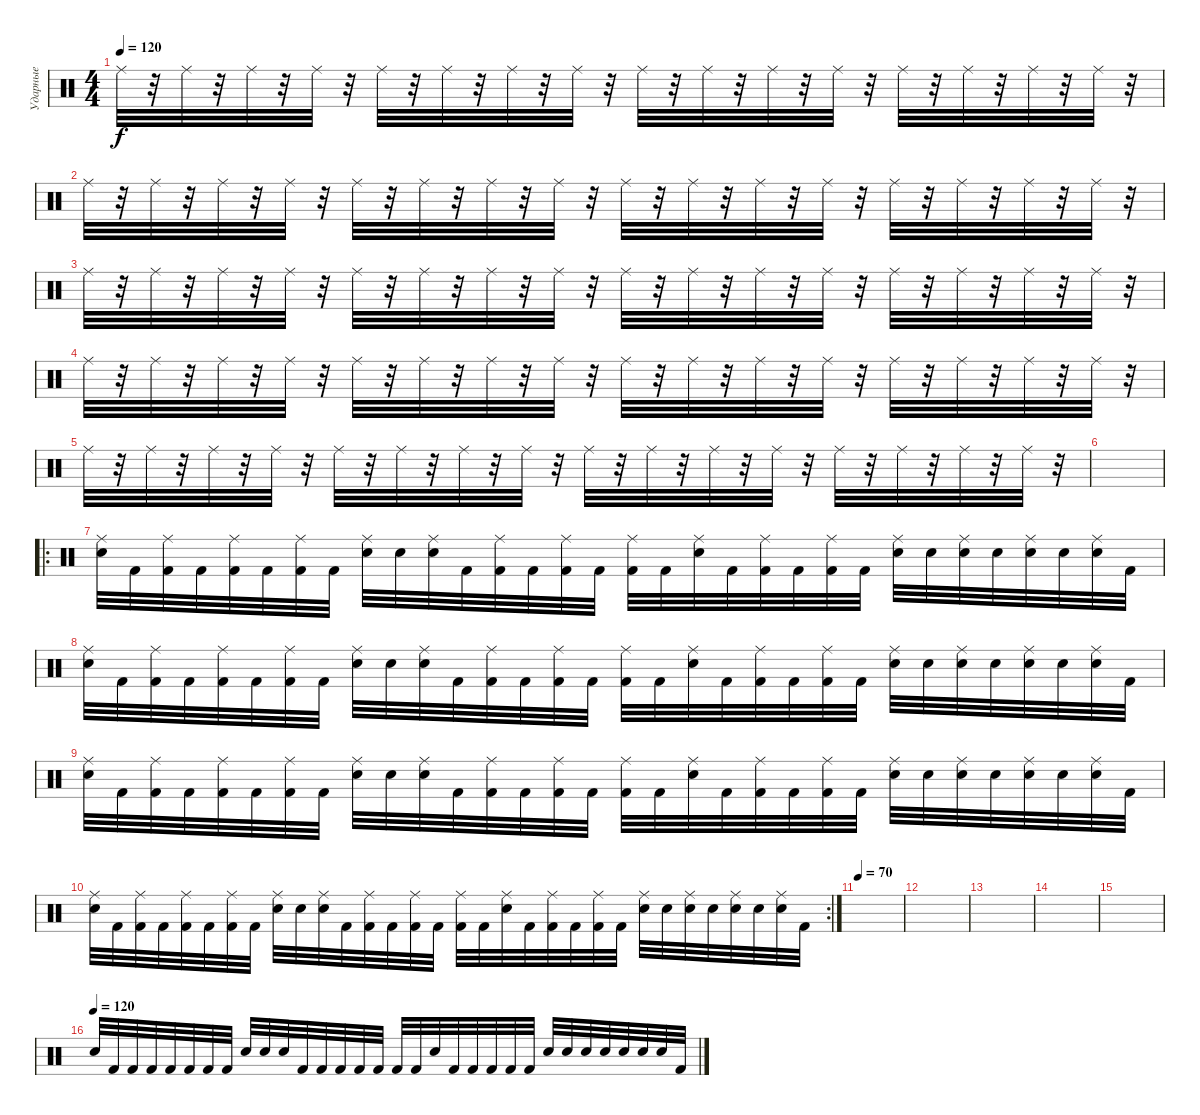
\track ("Ударные" "Ударные") {instrument percussion}
\staff {score}
\articulation defaults
\ts (4 4)
\tempo 120
\clef neutral
\ks c "Ride (middle)".32{dy f}
r.32 "Ride (middle)".32 r.32 "Ride (middle)".32 r.32 "Ride (middle)".32 r.32 "Ride (middle)".32 r.32 "Ride (middle)".32 r.32 "Ride (middle)".32 r.32 "Ride (middle)".32 r.32 "Ride (middle)".32 r.32 "Ride (middle)".32 r.32 "Ride (middle)".32 r.32 "Ride (middle)".32 r.32 "Ride (middle)".32 r.32 "Ride (middle)".32 r.32 "Ride (middle)".32 r.32 "Ride (middle)".32 r.32 |
"Ride (middle)".32 r.32 "Ride (middle)".32 r.32 "Ride (middle)".32 r.32 "Ride (middle)".32 r.32 "Ride (middle)".32 r.32 "Ride (middle)".32 r.32 "Ride (middle)".32 r.32 "Ride (middle)".32 r.32 "Ride (middle)".32 r.32 "Ride (middle)".32 r.32 "Ride (middle)".32 r.32 "Ride (middle)".32 r.32 "Ride (middle)".32 r.32 "Ride (middle)".32 r.32 "Ride (middle)".32 r.32 "Ride (middle)".32 r.32 |
"Ride (middle)".32 r.32 "Ride (middle)".32 r.32 "Ride (middle)".32 r.32 "Ride (middle)".32 r.32 "Ride (middle)".32 r.32 "Ride (middle)".32 r.32 "Ride (middle)".32 r.32 "Ride (middle)".32 r.32 "Ride (middle)".32 r.32 "Ride (middle)".32 r.32 "Ride (middle)".32 r.32 "Ride (middle)".32 r.32 "Ride (middle)".32 r.32 "Ride (middle)".32 r.32 "Ride (middle)".32 r.32 "Ride (middle)".32 r.32 |
"Ride (middle)".32 r.32 "Ride (middle)".32 r.32 "Ride (middle)".32 r.32 "Ride (middle)".32 r.32 "Ride (middle)".32 r.32 "Ride (middle)".32 r.32 "Ride (middle)".32 r.32 "Ride (middle)".32 r.32 "Ride (middle)".32 r.32 "Ride (middle)".32 r.32 "Ride (middle)".32 r.32 "Ride (middle)".32 r.32 "Ride (middle)".32 r.32 "Ride (middle)".32 r.32 "Ride (middle)".32 r.32 "Ride (middle)".32 r.32 |
"Ride (middle)".32 r.32 "Ride (middle)".32 r.32 "Ride (middle)".32 r.32 "Ride (middle)".32 r.32 "Ride (middle)".32 r.32 "Ride (middle)".32 r.32 "Ride (middle)".32 r.32 "Ride (middle)".32 r.32 "Ride (middle)".32 r.32 "Ride (middle)".32 r.32 "Ride (middle)".32 r.32 "Ride (middle)".32 r.32 "Ride (middle)".32 r.32 "Ride (middle)".32 r.32 "Ride (middle)".32 r.32 "Ride (middle)".32 r.32 |
|
\ro
("Ride (middle)" "Snare (hit) 2").32 "Kick (hit) 2".32 ("Ride (middle)" "Kick (hit) 2").32 "Kick (hit) 2".32 ("Ride (middle)" "Kick (hit) 2").32 "Kick (hit) 2".32 ("Ride (middle)" "Kick (hit) 2").32 "Kick (hit) 2".32 ("Ride (middle)" "Snare (hit) 2").32 "Snare (hit) 2".32 ("Ride (middle)" "Snare (hit) 2").32 "Kick (hit) 2".32 ("Ride (middle)" "Kick (hit) 2").32 "Kick (hit) 2".32 ("Ride (middle)" "Kick (hit) 2").32 "Kick (hit) 2".32 ("Ride (middle)" "Kick (hit) 2").32 "Kick (hit) 2".32 ("Ride (middle)" "Snare (hit) 2").32 "Kick (hit) 2".32 ("Ride (middle)" "Kick (hit) 2").32 "Kick (hit) 2".32 ("Ride (middle)" "Kick (hit) 2").32 "Kick (hit) 2".32 ("Ride (middle)" "Snare (hit) 2").32 "Snare (hit) 2".32 ("Ride (middle)" "Snare (hit) 2").32 "Snare (hit) 2".32 ("Ride (middle)" "Snare (hit) 2").32 "Snare (hit) 2".32 ("Ride (middle)" "Snare (hit) 2").32 "Kick (hit) 2".32 |
("Ride (middle)" "Snare (hit) 2").32 "Kick (hit) 2".32 ("Ride (middle)" "Kick (hit) 2").32 "Kick (hit) 2".32 ("Ride (middle)" "Kick (hit) 2").32 "Kick (hit) 2".32 ("Ride (middle)" "Kick (hit) 2").32 "Kick (hit) 2".32 ("Ride (middle)" "Snare (hit) 2").32 "Snare (hit) 2".32 ("Ride (middle)" "Snare (hit) 2").32 "Kick (hit) 2".32 ("Ride (middle)" "Kick (hit) 2").32 "Kick (hit) 2".32 ("Ride (middle)" "Kick (hit) 2").32 "Kick (hit) 2".32 ("Ride (middle)" "Kick (hit) 2").32 "Kick (hit) 2".32 ("Ride (middle)" "Snare (hit) 2").32 "Kick (hit) 2".32 ("Ride (middle)" "Kick (hit) 2").32 "Kick (hit) 2".32 ("Ride (middle)" "Kick (hit) 2").32 "Kick (hit) 2".32 ("Ride (middle)" "Snare (hit) 2").32 "Snare (hit) 2".32 ("Ride (middle)" "Snare (hit) 2").32 "Snare (hit) 2".32 ("Ride (middle)" "Snare (hit) 2").32 "Snare (hit) 2".32 ("Ride (middle)" "Snare (hit) 2").32 "Kick (hit) 2".32 |
("Ride (middle)" "Snare (hit) 2").32 "Kick (hit) 2".32 ("Ride (middle)" "Kick (hit) 2").32 "Kick (hit) 2".32 ("Ride (middle)" "Kick (hit) 2").32 "Kick (hit) 2".32 ("Ride (middle)" "Kick (hit) 2").32 "Kick (hit) 2".32 ("Ride (middle)" "Snare (hit) 2").32 "Snare (hit) 2".32 ("Ride (middle)" "Snare (hit) 2").32 "Kick (hit) 2".32 ("Ride (middle)" "Kick (hit) 2").32 "Kick (hit) 2".32 ("Ride (middle)" "Kick (hit) 2").32 "Kick (hit) 2".32 ("Ride (middle)" "Kick (hit) 2").32 "Kick (hit) 2".32 ("Ride (middle)" "Snare (hit) 2").32 "Kick (hit) 2".32 ("Ride (middle)" "Kick (hit) 2").32 "Kick (hit) 2".32 ("Ride (middle)" "Kick (hit) 2").32 "Kick (hit) 2".32 ("Ride (middle)" "Snare (hit) 2").32 "Snare (hit) 2".32 ("Ride (middle)" "Snare (hit) 2").32 "Snare (hit) 2".32 ("Ride (middle)" "Snare (hit) 2").32 "Snare (hit) 2".32 ("Ride (middle)" "Snare (hit) 2").32 "Kick (hit) 2".32 |
\rc 2
("Ride (middle)" "Snare (hit) 2").32 "Kick (hit) 2".32 ("Ride (middle)" "Kick (hit) 2").32 "Kick (hit) 2".32 ("Ride (middle)" "Kick (hit) 2").32 "Kick (hit) 2".32 ("Ride (middle)" "Kick (hit) 2").32 "Kick (hit) 2".32 ("Ride (middle)" "Snare (hit) 2").32 "Snare (hit) 2".32 ("Ride (middle)" "Snare (hit) 2").32 "Kick (hit) 2".32 ("Ride (middle)" "Kick (hit) 2").32 "Kick (hit) 2".32 ("Ride (middle)" "Kick (hit) 2").32 "Kick (hit) 2".32 ("Ride (middle)" "Kick (hit) 2").32 "Kick (hit) 2".32 ("Ride (middle)" "Snare (hit) 2").32 "Kick (hit) 2".32 ("Ride (middle)" "Kick (hit) 2").32 "Kick (hit) 2".32 ("Ride (middle)" "Kick (hit) 2").32 "Kick (hit) 2".32 ("Ride (middle)" "Snare (hit) 2").32 "Snare (hit) 2".32 ("Ride (middle)" "Snare (hit) 2").32 "Snare (hit) 2".32 ("Ride (middle)" "Snare (hit) 2").32 "Snare (hit) 2".32 ("Ride (middle)" "Snare (hit) 2").32 "Kick (hit) 2".32 |
\tempo 70
|
|
|
|
|
\tempo (120)
"Snare (hit) 2".32 "Kick (hit) 2".32 "Kick (hit) 2".32 "Kick (hit) 2".32 "Kick (hit) 2".32 "Kick (hit) 2".32 "Kick (hit) 2".32 "Kick (hit) 2".32 "Snare (hit) 2".32 "Snare (hit) 2".32 "Snare (hit) 2".32 "Kick (hit) 2".32 "Kick (hit) 2".32 "Kick (hit) 2".32 "Kick (hit) 2".32 "Kick (hit) 2".32 "Kick (hit) 2".32 "Kick (hit) 2".32 "Snare (hit) 2".32 "Kick (hit) 2".32 "Kick (hit) 2".32 "Kick (hit) 2".32 "Kick (hit) 2".32 "Kick (hit) 2".32 "Snare (hit) 2".32 "Snare (hit) 2".32 "Snare (hit) 2".32 "Snare (hit) 2".32 "Snare (hit) 2".32 "Snare (hit) 2".32 "Snare (hit) 2".32 "Kick (hit) 2".32
